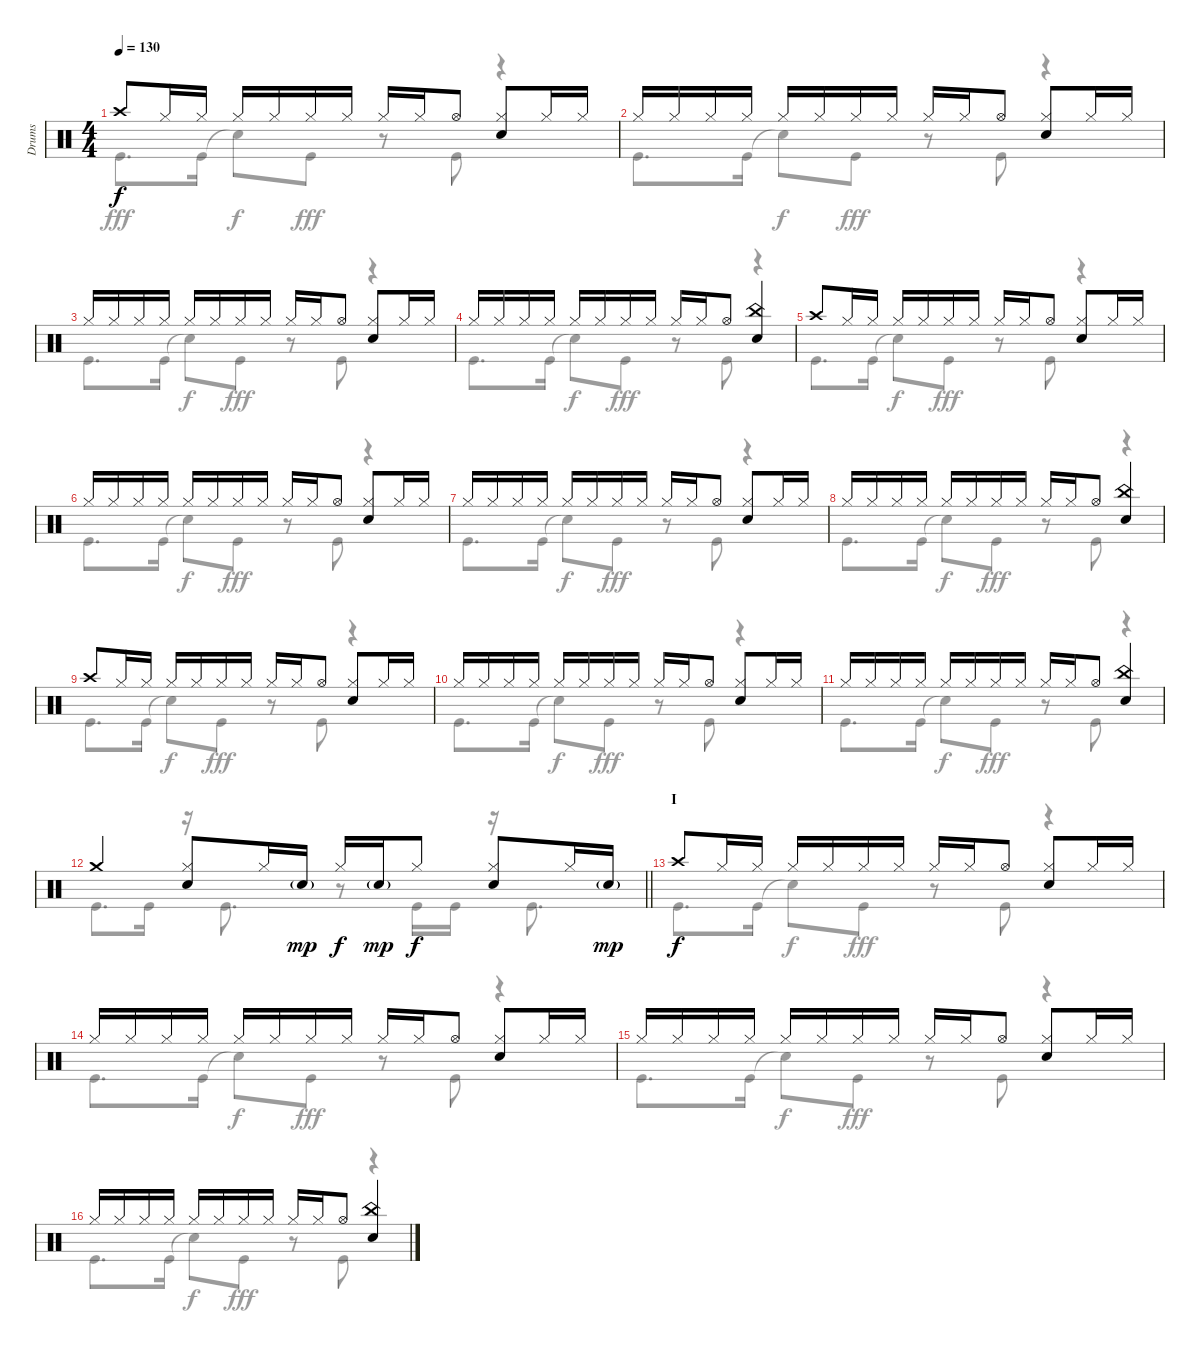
\track ("Drums" "Drums") {instrument percussion}
\staff {score}
\articulation defaults
\voice
\ts (4 4)
\tempo 130
\clef neutral
\ks c "Crash high (hit)".8{dy f} "Hi-Hat (closed)".16 "Hi-Hat (closed)".16 "Hi-Hat (closed)".16 "Hi-Hat (closed)".16 "Hi-Hat (closed)".16 "Hi-Hat (closed)".16 "Hi-Hat (closed)".16 "Hi-Hat (closed)".16 "Hi-Hat (open)".8
("Hi-Hat (closed)" "Snare (hit) 2").8 "Hi-Hat (closed)".16 "Hi-Hat (closed)".16 |
"Hi-Hat (closed)".16 "Hi-Hat (closed)".16 "Hi-Hat (closed)".16 "Hi-Hat (closed)".16 "Hi-Hat (closed)".16 "Hi-Hat (closed)".16 "Hi-Hat (closed)".16 "Hi-Hat (closed)".16 "Hi-Hat (closed)".16 "Hi-Hat (closed)".16 "Hi-Hat (open)".8 ("Hi-Hat (closed)" "Snare (hit) 2").8 "Hi-Hat (closed)".16 "Hi-Hat (closed)".16 |
"Hi-Hat (closed)".16 "Hi-Hat (closed)".16 "Hi-Hat (closed)".16 "Hi-Hat (closed)".16 "Hi-Hat (closed)".16 "Hi-Hat (closed)".16 "Hi-Hat (closed)".16 "Hi-Hat (closed)".16 "Hi-Hat (closed)".16 "Hi-Hat (closed)".16 "Hi-Hat (open)".8 ("Hi-Hat (closed)" "Snare (hit) 2").8 "Hi-Hat (closed)".16 "Hi-Hat (closed)".16 |
"Hi-Hat (closed)".16 "Hi-Hat (closed)".16 "Hi-Hat (closed)".16 "Hi-Hat (closed)".16 "Hi-Hat (closed)".16 "Hi-Hat (closed)".16 "Hi-Hat (closed)".16 "Hi-Hat (closed)".16 "Hi-Hat (closed)".16 "Hi-Hat (closed)".16 "Hi-Hat (open)".8 ("China (hit)" "Snare (hit) 2").4 |
"Crash high (hit)".8 "Hi-Hat (closed)".16 "Hi-Hat (closed)".16 "Hi-Hat (closed)".16 "Hi-Hat (closed)".16 "Hi-Hat (closed)".16 "Hi-Hat (closed)".16 "Hi-Hat (closed)".16 "Hi-Hat (closed)".16 "Hi-Hat (open)".8 ("Hi-Hat (closed)" "Snare (hit) 2").8 "Hi-Hat (closed)".16 "Hi-Hat (closed)".16 |
"Hi-Hat (closed)".16 "Hi-Hat (closed)".16 "Hi-Hat (closed)".16 "Hi-Hat (closed)".16 "Hi-Hat (closed)".16 "Hi-Hat (closed)".16 "Hi-Hat (closed)".16 "Hi-Hat (closed)".16 "Hi-Hat (closed)".16 "Hi-Hat (closed)".16 "Hi-Hat (open)".8 ("Hi-Hat (closed)" "Snare (hit) 2").8 "Hi-Hat (closed)".16 "Hi-Hat (closed)".16 |
"Hi-Hat (closed)".16 "Hi-Hat (closed)".16 "Hi-Hat (closed)".16 "Hi-Hat (closed)".16 "Hi-Hat (closed)".16 "Hi-Hat (closed)".16 "Hi-Hat (closed)".16 "Hi-Hat (closed)".16 "Hi-Hat (closed)".16 "Hi-Hat (closed)".16 "Hi-Hat (open)".8 ("Hi-Hat (closed)" "Snare (hit) 2").8 "Hi-Hat (closed)".16 "Hi-Hat (closed)".16 |
"Hi-Hat (closed)".16 "Hi-Hat (closed)".16 "Hi-Hat (closed)".16 "Hi-Hat (closed)".16 "Hi-Hat (closed)".16 "Hi-Hat (closed)".16 "Hi-Hat (closed)".16 "Hi-Hat (closed)".16 "Hi-Hat (closed)".16 "Hi-Hat (closed)".16 "Hi-Hat (open)".8 ("China (hit)" "Snare (hit) 2").4 |
"Crash high (hit)".8 "Hi-Hat (closed)".16 "Hi-Hat (closed)".16 "Hi-Hat (closed)".16 "Hi-Hat (closed)".16 "Hi-Hat (closed)".16 "Hi-Hat (closed)".16 "Hi-Hat (closed)".16 "Hi-Hat (closed)".16 "Hi-Hat (open)".8 ("Hi-Hat (closed)" "Snare (hit) 2").8 "Hi-Hat (closed)".16 "Hi-Hat (closed)".16 |
"Hi-Hat (closed)".16 "Hi-Hat (closed)".16 "Hi-Hat (closed)".16 "Hi-Hat (closed)".16 "Hi-Hat (closed)".16 "Hi-Hat (closed)".16 "Hi-Hat (closed)".16 "Hi-Hat (closed)".16 "Hi-Hat (closed)".16 "Hi-Hat (closed)".16 "Hi-Hat (open)".8 ("Hi-Hat (closed)" "Snare (hit) 2").8 "Hi-Hat (closed)".16 "Hi-Hat (closed)".16 |
"Hi-Hat (closed)".16 "Hi-Hat (closed)".16 "Hi-Hat (closed)".16 "Hi-Hat (closed)".16 "Hi-Hat (closed)".16 "Hi-Hat (closed)".16 "Hi-Hat (closed)".16 "Hi-Hat (closed)".16 "Hi-Hat (closed)".16 "Hi-Hat (closed)".16 "Hi-Hat (open)".8 ("China (hit)" "Snare (hit) 2").4 |
\barLineRight lightlight "Crash medium (hit)".4
("Hi-Hat (closed)" "Snare (hit) 2").8 "Hi-Hat (closed)".16 "Snare (hit) 2"{g}.16{dy mp} "Hi-Hat (closed)".16{dy f} "Snare (hit) 2"{g}.16{dy mp} "Hi-Hat (closed)".8{dy f} ("Hi-Hat (closed)" "Snare (hit) 2").8 "Hi-Hat (closed)".16 "Snare (hit) 2"{g}.16{dy mp} |
\section ("" "I")
"Crash high (hit)".8{dy f} "Hi-Hat (closed)".16 "Hi-Hat (closed)".16 "Hi-Hat (closed)".16 "Hi-Hat (closed)".16 "Hi-Hat (closed)".16 "Hi-Hat (closed)".16 "Hi-Hat (closed)".16 "Hi-Hat (closed)".16 "Hi-Hat (open)".8 ("Hi-Hat (closed)" "Snare (hit) 2").8 "Hi-Hat (closed)".16 "Hi-Hat (closed)".16 |
"Hi-Hat (closed)".16 "Hi-Hat (closed)".16 "Hi-Hat (closed)".16 "Hi-Hat (closed)".16 "Hi-Hat (closed)".16 "Hi-Hat (closed)".16 "Hi-Hat (closed)".16 "Hi-Hat (closed)".16 "Hi-Hat (closed)".16 "Hi-Hat (closed)".16 "Hi-Hat (open)".8 ("Hi-Hat (closed)" "Snare (hit) 2").8 "Hi-Hat (closed)".16 "Hi-Hat (closed)".16 |
"Hi-Hat (closed)".16 "Hi-Hat (closed)".16 "Hi-Hat (closed)".16 "Hi-Hat (closed)".16 "Hi-Hat (closed)".16 "Hi-Hat (closed)".16 "Hi-Hat (closed)".16 "Hi-Hat (closed)".16 "Hi-Hat (closed)".16 "Hi-Hat (closed)".16 "Hi-Hat (open)".8 ("Hi-Hat (closed)" "Snare (hit) 2").8 "Hi-Hat (closed)".16 "Hi-Hat (closed)".16 |
"Hi-Hat (closed)".16 "Hi-Hat (closed)".16 "Hi-Hat (closed)".16 "Hi-Hat (closed)".16 "Hi-Hat (closed)".16 "Hi-Hat (closed)".16 "Hi-Hat (closed)".16 "Hi-Hat (closed)".16 "Hi-Hat (closed)".16 "Hi-Hat (closed)".16 "Hi-Hat (open)".8 ("China (hit)" "Snare (hit) 2").4
\voice
\clef neutral
\ottava regular
\simile none
\ks c "Kick (hit)".8{d dy fff} "Kick (hit)".16 "Snare (hit)"{t}.8{dy f} "Kick (hit)".8{dy fff}
r.8 "Kick (hit)".8 r.4 |
"Kick (hit)".8{d} "Kick (hit)".16 "Snare (hit)"{t}.8{dy f} "Kick (hit)".8{dy fff} r.8 "Kick (hit)".8 r.4 |
"Kick (hit)".8{d} "Kick (hit)".16 "Snare (hit)"{t}.8{dy f} "Kick (hit)".8{dy fff} r.8 "Kick (hit)".8 r.4 |
"Kick (hit)".8{d} "Kick (hit)".16 "Snare (hit)"{t}.8{dy f} "Kick (hit)".8{dy fff} r.8 "Kick (hit)".8 r.4 |
"Kick (hit)".8{d} "Kick (hit)".16 "Snare (hit)"{t}.8{dy f} "Kick (hit)".8{dy fff} r.8 "Kick (hit)".8 r.4 |
"Kick (hit)".8{d} "Kick (hit)".16 "Snare (hit)"{t}.8{dy f} "Kick (hit)".8{dy fff} r.8 "Kick (hit)".8 r.4 |
"Kick (hit)".8{d} "Kick (hit)".16 "Snare (hit)"{t}.8{dy f} "Kick (hit)".8{dy fff} r.8 "Kick (hit)".8 r.4 |
"Kick (hit)".8{d} "Kick (hit)".16 "Snare (hit)"{t}.8{dy f} "Kick (hit)".8{dy fff} r.8 "Kick (hit)".8 r.4 |
"Kick (hit)".8{d} "Kick (hit)".16 "Snare (hit)"{t}.8{dy f} "Kick (hit)".8{dy fff} r.8 "Kick (hit)".8 r.4 |
"Kick (hit)".8{d} "Kick (hit)".16 "Snare (hit)"{t}.8{dy f} "Kick (hit)".8{dy fff} r.8 "Kick (hit)".8 r.4 |
"Kick (hit)".8{d} "Kick (hit)".16 "Snare (hit)"{t}.8{dy f} "Kick (hit)".8{dy fff} r.8 "Kick (hit)".8 r.4 |
\barLineRight lightlight "Kick (hit)".8{d} "Kick (hit)".16
r.16 "Kick (hit)".8{d} r.8 "Kick (hit)".16 "Kick (hit)".16 r.16 "Kick (hit)".8{d} |
"Kick (hit)".8{d} "Kick (hit)".16 "Snare (hit)"{t}.8{dy f} "Kick (hit)".8{dy fff} r.8 "Kick (hit)".8 r.4 |
"Kick (hit)".8{d} "Kick (hit)".16 "Snare (hit)"{t}.8{dy f} "Kick (hit)".8{dy fff} r.8 "Kick (hit)".8 r.4 |
"Kick (hit)".8{d} "Kick (hit)".16 "Snare (hit)"{t}.8{dy f} "Kick (hit)".8{dy fff} r.8 "Kick (hit)".8 r.4 |
"Kick (hit)".8{d} "Kick (hit)".16 "Snare (hit)"{t}.8{dy f} "Kick (hit)".8{dy fff} r.8 "Kick (hit)".8 r.4
